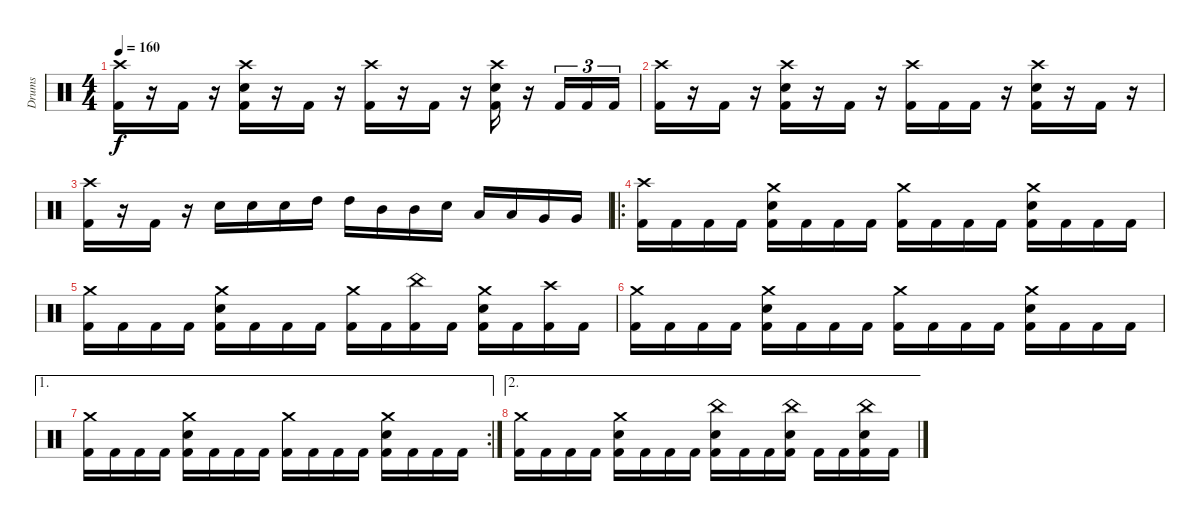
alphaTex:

\track ("Drums" "Drums") {instrument percussion}
\staff {score}
\articulation defaults
\ts (4 4)
\tempo 160
\clef neutral
\ks c
("Crash high (hit)" "Kick (hit) 2").16{dy f} r.16 "Kick (hit) 2".16 r.16 ("Crash high (hit)" "Snare (hit) 2" "Kick (hit) 2").16 r.16 "Kick (hit) 2".16 r.16 ("Crash high (hit)" "Kick (hit) 2").16 r.16 "Kick (hit) 2".16 r.16 ("Crash high (hit)" "Snare (hit) 2" "Kick (hit) 2").16 r.16 "Kick (hit) 2".16{tu (3 2)} "Kick (hit) 2".16{tu (3 2)} "Kick (hit) 2".16{tu (3 2)} |
("Crash high (hit)" "Kick (hit) 2").16 r.16 "Kick (hit) 2".16 r.16 ("Crash high (hit)" "Snare (hit) 2" "Kick (hit) 2").16 r.16 "Kick (hit) 2".16 r.16 ("Crash high (hit)" "Kick (hit) 2").16 "Kick (hit) 2".16 "Kick (hit) 2".16 r.16 ("Crash high (hit)" "Snare (hit) 2" "Kick (hit) 2").16 r.16 "Kick (hit) 2".16 r.16 |
("Crash high (hit)" "Kick (hit) 2").16 r.16 "Kick (hit) 2".16 r.16 "Snare (hit) 2".16 "Snare (hit) 2".16 "Snare (hit) 2".16 "High Tom (hit)".16 "High Tom (hit)".16 "Mid Tom (hit)".16 "Mid Tom (hit)".16 "Snare (hit) 2".16 "Low Tom (hit)".16 "Low Tom (hit)".16 "Very Low Tom (hit)".16 "Very Low Tom (hit)".16 |
\ro
("Crash high (hit)" "Kick (hit) 2").16 "Kick (hit) 2".16 "Kick (hit) 2".16 "Kick (hit) 2".16 ("Crash medium (hit)" "Snare (hit) 2" "Kick (hit) 2").16 "Kick (hit) 2".16 "Kick (hit) 2".16 "Kick (hit) 2".16 ("Crash medium (hit)" "Kick (hit) 2").16 "Kick (hit) 2".16 "Kick (hit) 2".16 "Kick (hit) 2".16 ("Crash medium (hit)" "Snare (hit) 2" "Kick (hit) 2").16 "Kick (hit) 2".16 "Kick (hit) 2".16 "Kick (hit) 2".16 |
("Crash medium (hit)" "Kick (hit) 2").16 "Kick (hit) 2".16 "Kick (hit) 2".16 "Kick (hit) 2".16 ("Crash medium (hit)" "Snare (hit) 2" "Kick (hit) 2").16 "Kick (hit) 2".16 "Kick (hit) 2".16 "Kick (hit) 2".16 ("Crash medium (hit)" "Kick (hit) 2").16 "Kick (hit) 2".16 ("China (hit)" "Kick (hit) 2").16 "Kick (hit) 2".16 ("Crash medium (hit)" "Snare (hit) 2" "Kick (hit) 2").16 "Kick (hit) 2".16 ("Crash high (hit)" "Kick (hit) 2").16 "Kick (hit) 2".16 |
("Crash medium (hit)" "Kick (hit) 2").16 "Kick (hit) 2".16 "Kick (hit) 2".16 "Kick (hit) 2".16 ("Crash medium (hit)" "Snare (hit) 2" "Kick (hit) 2").16 "Kick (hit) 2".16 "Kick (hit) 2".16 "Kick (hit) 2".16 ("Crash medium (hit)" "Kick (hit) 2").16 "Kick (hit) 2".16 "Kick (hit) 2".16 "Kick (hit) 2".16 ("Crash medium (hit)" "Snare (hit) 2" "Kick (hit) 2").16 "Kick (hit) 2".16 "Kick (hit) 2".16 "Kick (hit) 2".16 |
\ae 1
\rc 2
("Crash medium (hit)" "Kick (hit) 2").16 "Kick (hit) 2".16 "Kick (hit) 2".16 "Kick (hit) 2".16 ("Crash medium (hit)" "Snare (hit) 2" "Kick (hit) 2").16 "Kick (hit) 2".16 "Kick (hit) 2".16 "Kick (hit) 2".16 ("Crash medium (hit)" "Kick (hit) 2").16 "Kick (hit) 2".16 "Kick (hit) 2".16 "Kick (hit) 2".16 ("Crash medium (hit)" "Snare (hit) 2" "Kick (hit) 2").16 "Kick (hit) 2".16 "Kick (hit) 2".16 "Kick (hit) 2".16 |
\ae 2
("Crash medium (hit)" "Kick (hit) 2").16 "Kick (hit) 2".16 "Kick (hit) 2".16 "Kick (hit) 2".16 ("Crash medium (hit)" "Snare (hit) 2" "Kick (hit) 2").16 "Kick (hit) 2".16 "Kick (hit) 2".16 "Kick (hit) 2".16 ("China (hit)" "Snare (hit) 2" "Kick (hit) 2").16 "Kick (hit) 2".16 "Kick (hit) 2".16 ("China (hit)" "Snare (hit) 2" "Kick (hit) 2").16 "Kick (hit) 2".16 "Kick (hit) 2".16 ("China (hit)" "Snare (hit) 2" "Kick (hit) 2").16 "Kick (hit) 2".16
